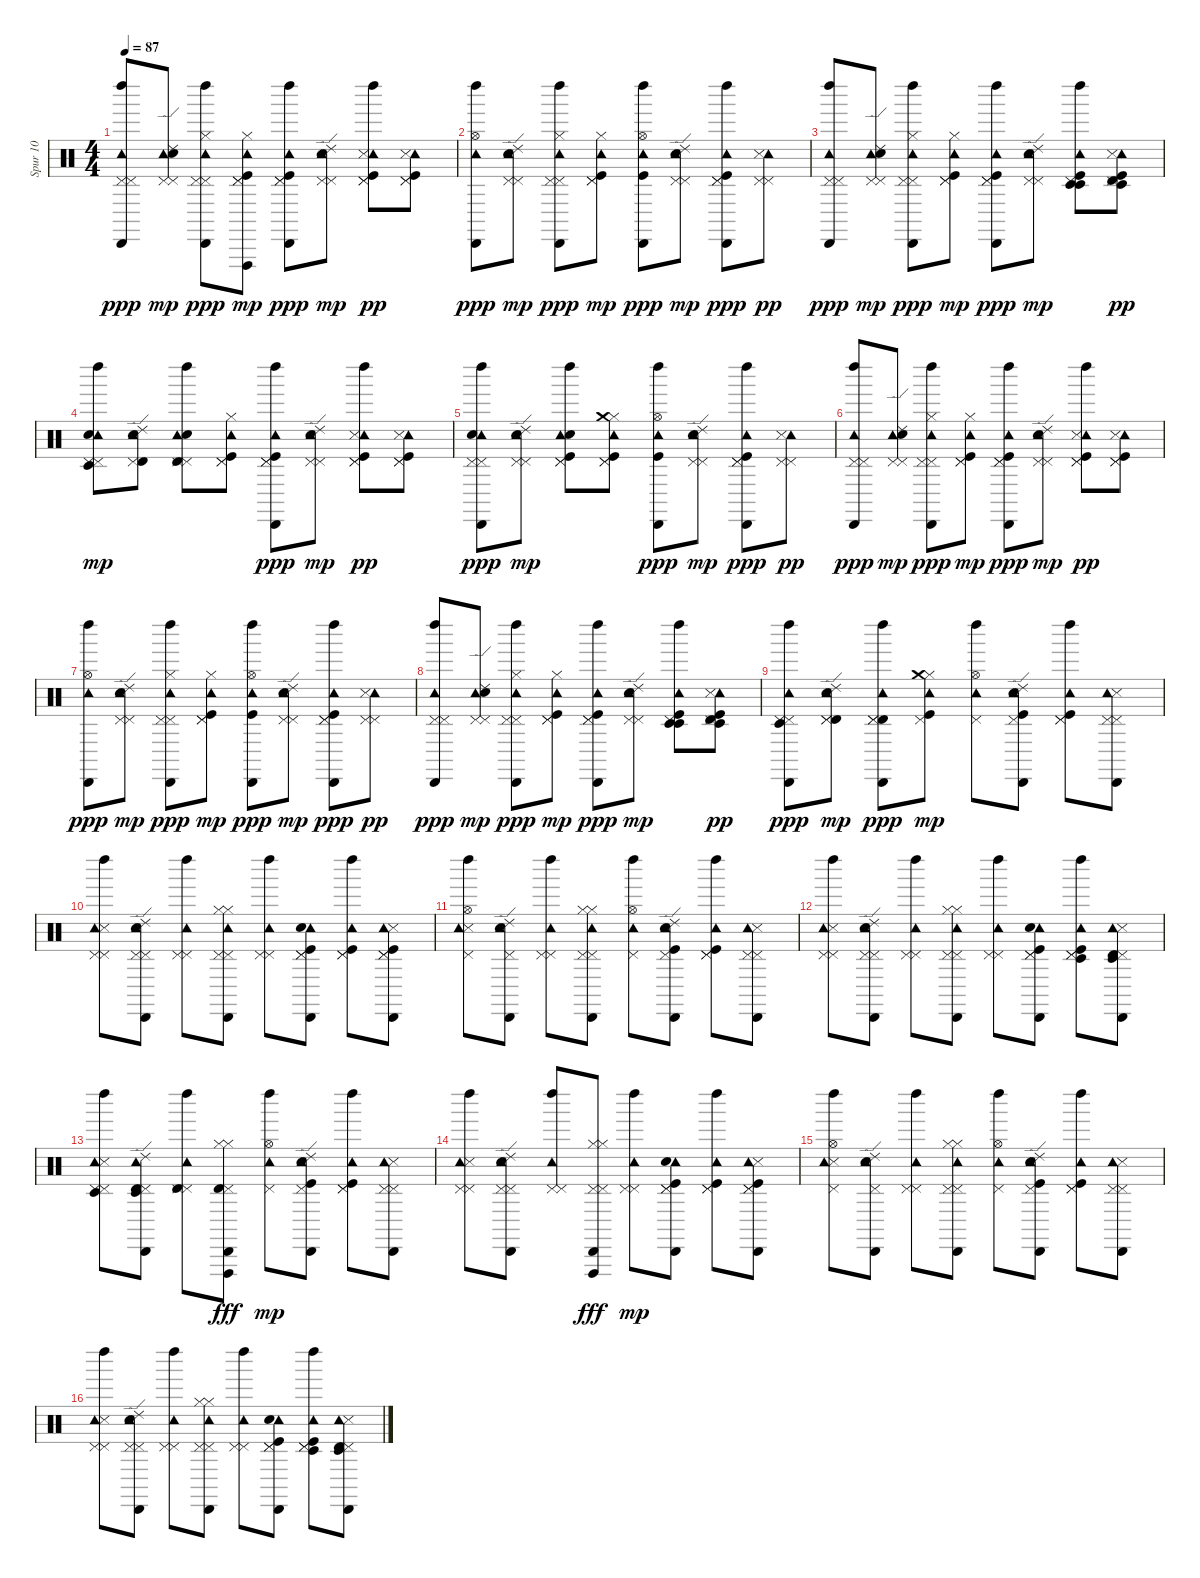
\track ("Spur 10" "Spur 10") {instrument percussion}
\staff {score}
\articulation defaults
\ts (4 4)
\tempo 87
\clef neutral
\ks c
("Left Maraca (hit)" "Pedal Hi-Hat (hit)" "Tambourine (hit)" "Cabasa (hit)" "Pedal Hi-Hat (hit)").8{dy ppp} ("Ride (edge) 2" "Pedal Hi-Hat (hit)" "Tambourine (hit)" "Electric Snare (hit)" "Pedal Hi-Hat (hit)").8{dy mp} ("Left Maraca (hit)" "Pedal Hi-Hat (hit)" "Tambourine (hit)" "Cabasa (hit)" "Pedal Hi-Hat (hit)" "Hi-Hat (closed)").8{dy ppp} ("Hi-Hat (closed)" "Vibraslap (hit)" "Pedal Hi-Hat (hit)" "Tambourine (hit)" "Kick (hit)" "Pedal Hi-Hat (hit)").8{dy mp} ("Left Maraca (hit)" "Pedal Hi-Hat (hit)" "Tambourine (hit)" "Kick (hit)" "Cabasa (hit)" "Pedal Hi-Hat (hit)").8{dy ppp} ("Pedal Hi-Hat (hit)" "Tambourine (hit)" "Electric Snare (hit)" "Ride (edge) 2" "Pedal Hi-Hat (hit)").8{dy mp} ("Kick (hit)" "Tambourine (hit)" "Left Maraca (hit)" "Pedal Hi-Hat (hit)" "Pedal Hi-Hat (hit)" "Snare (side stick) 3").8{dy pp} ("Tambourine (hit)" "Pedal Hi-Hat (hit)" "Kick (hit)" "Snare (side stick) 3" "Pedal Hi-Hat (hit)").8 |
("Left Maraca (hit)" "Tambourine (hit)" "Hi-Hat (open)" "Cabasa (hit)").8{dy ppp} ("Ride (edge) 2" "Tambourine (hit)" "Pedal Hi-Hat (hit)" "Electric Snare (hit)" "Pedal Hi-Hat (hit)").8{dy mp} ("Pedal Hi-Hat (hit)" "Left Maraca (hit)" "Tambourine (hit)" "Pedal Hi-Hat (hit)" "Cabasa (hit)" "Hi-Hat (closed)").8{dy ppp} ("Hi-Hat (closed)" "Pedal Hi-Hat (hit)" "Tambourine (hit)" "Kick (hit)" "Pedal Hi-Hat (hit)").8{dy mp} ("Left Maraca (hit)" "Hi-Hat (open)" "Tambourine (hit)" "Kick (hit)" "Cabasa (hit)").8{dy ppp} ("Ride (edge) 2" "Pedal Hi-Hat (hit)" "Tambourine (hit)" "Electric Snare (hit)" "Pedal Hi-Hat (hit)").8{dy mp} ("Pedal Hi-Hat (hit)" "Kick (hit)" "Tambourine (hit)" "Left Maraca (hit)" "Cabasa (hit)" "Pedal Hi-Hat (hit)").8{dy ppp} ("Pedal Hi-Hat (hit)" "Tambourine (hit)" "Snare (side stick) 3" "Pedal Hi-Hat (hit)").8{dy pp} |
("Left Maraca (hit)" "Pedal Hi-Hat (hit)" "Tambourine (hit)" "Cabasa (hit)" "Pedal Hi-Hat (hit)").8{dy ppp} ("Ride (edge) 2" "Pedal Hi-Hat (hit)" "Tambourine (hit)" "Electric Snare (hit)" "Pedal Hi-Hat (hit)").8{dy mp} ("Left Maraca (hit)" "Pedal Hi-Hat (hit)" "Tambourine (hit)" "Cabasa (hit)" "Pedal Hi-Hat (hit)" "Hi-Hat (closed)").8{dy ppp} ("Hi-Hat (closed)" "Pedal Hi-Hat (hit)" "Tambourine (hit)" "Kick (hit)" "Pedal Hi-Hat (hit)").8{dy mp} ("Left Maraca (hit)" "Pedal Hi-Hat (hit)" "Tambourine (hit)" "Kick (hit)" "Cabasa (hit)" "Pedal Hi-Hat (hit)").8{dy ppp} ("Pedal Hi-Hat (hit)" "Tambourine (hit)" "Electric Snare (hit)" "Ride (edge) 2" "Pedal Hi-Hat (hit)").8{dy mp} ("Timbale low (hit)" "Kick (hit)" "Tambourine (hit)" "Left Maraca (hit)" "Pedal Hi-Hat (hit)" "Timbale low (hit)").8 ("Timbale high (hit)" "Tambourine (hit)" "Pedal Hi-Hat (hit)" "Kick (hit)" "Timbale low (hit)" "Snare (side stick) 3").8{dy pp} |
("Pedal Hi-Hat (hit)" "Left Maraca (hit)" "Tambourine (hit)" "Electric Snare (hit)" "Timbale low (hit)" "Pedal Hi-Hat (hit)").8{dy mp} ("Timbale high (hit)" "Ride (edge) 2" "Tambourine (hit)" "Pedal Hi-Hat (hit)" "Electric Snare (hit)").8 ("Pedal Hi-Hat (hit)" "Electric Snare (hit)" "Timbale high (hit)" "Pedal Hi-Hat (hit)" "Left Maraca (hit)" "Tambourine (hit)").8 ("Hi-Hat (closed)" "Pedal Hi-Hat (hit)" "Tambourine (hit)" "Kick (hit)" "Pedal Hi-Hat (hit)").8 ("Left Maraca (hit)" "Pedal Hi-Hat (hit)" "Tambourine (hit)" "Kick (hit)" "Cabasa (hit)" "Pedal Hi-Hat (hit)").8{dy ppp} ("Pedal Hi-Hat (hit)" "Tambourine (hit)" "Electric Snare (hit)" "Ride (edge) 2" "Pedal Hi-Hat (hit)").8{dy mp} ("Kick (hit)" "Tambourine (hit)" "Left Maraca (hit)" "Pedal Hi-Hat (hit)" "Pedal Hi-Hat (hit)" "Snare (side stick) 3").8{dy pp} ("Tambourine (hit)" "Pedal Hi-Hat (hit)" "Kick (hit)" "Snare (side stick) 3" "Pedal Hi-Hat (hit)").8 |
("Pedal Hi-Hat (hit)" "Left Maraca (hit)" "Tambourine (hit)" "Electric Snare (hit)" "Pedal Hi-Hat (hit)" "Cabasa (hit)").8{dy ppp} ("Ride (edge) 2" "Tambourine (hit)" "Pedal Hi-Hat (hit)" "Electric Snare (hit)" "Pedal Hi-Hat (hit)").8{dy mp} ("Kick (hit)" "Electric Snare (hit)" "Pedal Hi-Hat (hit)" "Left Maraca (hit)" "Tambourine (hit)" "Pedal Hi-Hat (hit)").8 ("Hi-Hat (closed)" "Pedal Hi-Hat (hit)" "Tambourine (hit)" "Kick (hit)" "Crash medium (hit)" "Pedal Hi-Hat (hit)").8 ("Left Maraca (hit)" "Hi-Hat (open)" "Tambourine (hit)" "Kick (hit)" "Cabasa (hit)").8{dy ppp} ("Ride (edge) 2" "Pedal Hi-Hat (hit)" "Tambourine (hit)" "Electric Snare (hit)" "Pedal Hi-Hat (hit)").8{dy mp} ("Pedal Hi-Hat (hit)" "Kick (hit)" "Tambourine (hit)" "Left Maraca (hit)" "Cabasa (hit)" "Pedal Hi-Hat (hit)").8{dy ppp} ("Pedal Hi-Hat (hit)" "Tambourine (hit)" "Snare (side stick) 3" "Pedal Hi-Hat (hit)").8{dy pp} |
("Left Maraca (hit)" "Pedal Hi-Hat (hit)" "Tambourine (hit)" "Cabasa (hit)" "Pedal Hi-Hat (hit)").8{dy ppp} ("Ride (edge) 2" "Pedal Hi-Hat (hit)" "Tambourine (hit)" "Electric Snare (hit)" "Pedal Hi-Hat (hit)").8{dy mp} ("Left Maraca (hit)" "Pedal Hi-Hat (hit)" "Tambourine (hit)" "Cabasa (hit)" "Pedal Hi-Hat (hit)" "Hi-Hat (closed)").8{dy ppp} ("Hi-Hat (closed)" "Pedal Hi-Hat (hit)" "Tambourine (hit)" "Kick (hit)" "Pedal Hi-Hat (hit)").8{dy mp} ("Left Maraca (hit)" "Pedal Hi-Hat (hit)" "Tambourine (hit)" "Kick (hit)" "Cabasa (hit)" "Pedal Hi-Hat (hit)").8{dy ppp} ("Pedal Hi-Hat (hit)" "Tambourine (hit)" "Electric Snare (hit)" "Ride (edge) 2" "Pedal Hi-Hat (hit)").8{dy mp} ("Kick (hit)" "Tambourine (hit)" "Left Maraca (hit)" "Pedal Hi-Hat (hit)" "Pedal Hi-Hat (hit)" "Snare (side stick) 3").8{dy pp} ("Tambourine (hit)" "Pedal Hi-Hat (hit)" "Kick (hit)" "Snare (side stick) 3" "Pedal Hi-Hat (hit)").8 |
("Left Maraca (hit)" "Tambourine (hit)" "Hi-Hat (open)" "Cabasa (hit)").8{dy ppp} ("Ride (edge) 2" "Tambourine (hit)" "Pedal Hi-Hat (hit)" "Electric Snare (hit)" "Pedal Hi-Hat (hit)").8{dy mp} ("Pedal Hi-Hat (hit)" "Left Maraca (hit)" "Tambourine (hit)" "Pedal Hi-Hat (hit)" "Cabasa (hit)" "Hi-Hat (closed)").8{dy ppp} ("Hi-Hat (closed)" "Pedal Hi-Hat (hit)" "Tambourine (hit)" "Kick (hit)" "Pedal Hi-Hat (hit)").8{dy mp} ("Left Maraca (hit)" "Hi-Hat (open)" "Tambourine (hit)" "Kick (hit)" "Cabasa (hit)").8{dy ppp} ("Ride (edge) 2" "Pedal Hi-Hat (hit)" "Tambourine (hit)" "Electric Snare (hit)" "Pedal Hi-Hat (hit)").8{dy mp} ("Pedal Hi-Hat (hit)" "Kick (hit)" "Tambourine (hit)" "Left Maraca (hit)" "Cabasa (hit)" "Pedal Hi-Hat (hit)").8{dy ppp} ("Pedal Hi-Hat (hit)" "Tambourine (hit)" "Snare (side stick) 3" "Pedal Hi-Hat (hit)").8{dy pp} |
("Left Maraca (hit)" "Pedal Hi-Hat (hit)" "Tambourine (hit)" "Cabasa (hit)" "Pedal Hi-Hat (hit)").8{dy ppp} ("Ride (edge) 2" "Pedal Hi-Hat (hit)" "Tambourine (hit)" "Electric Snare (hit)" "Pedal Hi-Hat (hit)").8{dy mp} ("Left Maraca (hit)" "Pedal Hi-Hat (hit)" "Tambourine (hit)" "Cabasa (hit)" "Pedal Hi-Hat (hit)" "Hi-Hat (closed)").8{dy ppp} ("Hi-Hat (closed)" "Pedal Hi-Hat (hit)" "Tambourine (hit)" "Kick (hit)" "Pedal Hi-Hat (hit)").8{dy mp} ("Left Maraca (hit)" "Pedal Hi-Hat (hit)" "Tambourine (hit)" "Kick (hit)" "Cabasa (hit)" "Pedal Hi-Hat (hit)").8{dy ppp} ("Pedal Hi-Hat (hit)" "Tambourine (hit)" "Electric Snare (hit)" "Ride (edge) 2" "Pedal Hi-Hat (hit)").8{dy mp} ("Timbale low (hit)" "Kick (hit)" "Tambourine (hit)" "Left Maraca (hit)" "Pedal Hi-Hat (hit)" "Timbale low (hit)").8 ("Timbale high (hit)" "Tambourine (hit)" "Pedal Hi-Hat (hit)" "Kick (hit)" "Timbale low (hit)" "Snare (side stick) 3").8{dy pp} |
("Pedal Hi-Hat (hit)" "Left Maraca (hit)" "Tambourine (hit)" "Timbale low (hit)" "Pedal Hi-Hat (hit)" "Cabasa (hit)").8{dy ppp} ("Timbale high (hit)" "Ride (edge) 2" "Tambourine (hit)" "Pedal Hi-Hat (hit)" "Electric Snare (hit)" "Pedal Hi-Hat (hit)").8{dy mp} ("Timbale high (hit)" "Pedal Hi-Hat (hit)" "Left Maraca (hit)" "Tambourine (hit)" "Pedal Hi-Hat (hit)" "Cabasa (hit)").8{dy ppp} ("Hi-Hat (closed)" "Pedal Hi-Hat (hit)" "Tambourine (hit)" "Kick (hit)" "Crash medium (hit)").8{dy mp} ("Pedal Hi-Hat (hit)" "Left Maraca (hit)" "Hi-Hat (open)" "Tambourine (hit)").8 ("Kick (hit)" "Cabasa (hit)" "Ride (edge) 2" "Pedal Hi-Hat (hit)" "Tambourine (hit)" "Electric Snare (hit)").8 ("Pedal Hi-Hat (hit)" "Pedal Hi-Hat (hit)" "Kick (hit)" "Tambourine (hit)" "Left Maraca (hit)").8 ("Cabasa (hit)" "Pedal Hi-Hat (hit)" "Snare (side stick) 3" "Pedal Hi-Hat (hit)" "Tambourine (hit)").8 |
("Snare (side stick) 3" "Pedal Hi-Hat (hit)" "Left Maraca (hit)" "Pedal Hi-Hat (hit)" "Tambourine (hit)").8 ("Cabasa (hit)" "Pedal Hi-Hat (hit)" "Ride (edge) 2" "Pedal Hi-Hat (hit)" "Tambourine (hit)" "Electric Snare (hit)").8 ("Pedal Hi-Hat (hit)" "Left Maraca (hit)" "Pedal Hi-Hat (hit)" "Tambourine (hit)").8 ("Cabasa (hit)" "Pedal Hi-Hat (hit)" "Hi-Hat (closed)" "Hi-Hat (closed)" "Pedal Hi-Hat (hit)" "Tambourine (hit)").8 ("Pedal Hi-Hat (hit)" "Left Maraca (hit)" "Pedal Hi-Hat (hit)" "Tambourine (hit)").8 ("Kick (hit)" "Cabasa (hit)" "Pedal Hi-Hat (hit)" "Pedal Hi-Hat (hit)" "Tambourine (hit)" "Electric Snare (hit)").8 ("Pedal Hi-Hat (hit)" "Kick (hit)" "Tambourine (hit)" "Left Maraca (hit)" "Pedal Hi-Hat (hit)").8 ("Pedal Hi-Hat (hit)" "Snare (side stick) 3" "Cabasa (hit)" "Tambourine (hit)" "Pedal Hi-Hat (hit)" "Kick (hit)").8 |
("Snare (side stick) 3" "Pedal Hi-Hat (hit)" "Left Maraca (hit)" "Tambourine (hit)" "Hi-Hat (open)").8 ("Cabasa (hit)" "Ride (edge) 2" "Tambourine (hit)" "Pedal Hi-Hat (hit)" "Electric Snare (hit)").8 ("Pedal Hi-Hat (hit)" "Pedal Hi-Hat (hit)" "Left Maraca (hit)" "Tambourine (hit)").8 ("Pedal Hi-Hat (hit)" "Cabasa (hit)" "Hi-Hat (closed)" "Hi-Hat (closed)" "Pedal Hi-Hat (hit)" "Tambourine (hit)").8 ("Pedal Hi-Hat (hit)" "Left Maraca (hit)" "Hi-Hat (open)" "Tambourine (hit)").8 ("Kick (hit)" "Cabasa (hit)" "Ride (edge) 2" "Pedal Hi-Hat (hit)" "Tambourine (hit)" "Electric Snare (hit)").8 ("Pedal Hi-Hat (hit)" "Pedal Hi-Hat (hit)" "Kick (hit)" "Tambourine (hit)" "Left Maraca (hit)").8 ("Cabasa (hit)" "Pedal Hi-Hat (hit)" "Snare (side stick) 3" "Pedal Hi-Hat (hit)" "Tambourine (hit)").8 |
("Snare (side stick) 3" "Pedal Hi-Hat (hit)" "Left Maraca (hit)" "Pedal Hi-Hat (hit)" "Tambourine (hit)").8 ("Cabasa (hit)" "Pedal Hi-Hat (hit)" "Ride (edge) 2" "Pedal Hi-Hat (hit)" "Tambourine (hit)" "Electric Snare (hit)").8 ("Pedal Hi-Hat (hit)" "Left Maraca (hit)" "Pedal Hi-Hat (hit)" "Tambourine (hit)").8 ("Cabasa (hit)" "Pedal Hi-Hat (hit)" "Hi-Hat (closed)" "Hi-Hat (closed)" "Pedal Hi-Hat (hit)" "Tambourine (hit)").8 ("Pedal Hi-Hat (hit)" "Left Maraca (hit)" "Pedal Hi-Hat (hit)" "Tambourine (hit)").8 ("Kick (hit)" "Cabasa (hit)" "Pedal Hi-Hat (hit)" "Pedal Hi-Hat (hit)" "Tambourine (hit)" "Electric Snare (hit)").8 ("Pedal Hi-Hat (hit)" "Timbale low (hit)" "Kick (hit)" "Tambourine (hit)" "Left Maraca (hit)" "Pedal Hi-Hat (hit)").8 ("Timbale low (hit)" "Pedal Hi-Hat (hit)" "Snare (side stick) 3" "Cabasa (hit)" "Timbale high (hit)" "Tambourine (hit)").8 |
("Timbale low (hit)" "Snare (side stick) 3" "Pedal Hi-Hat (hit)" "Pedal Hi-Hat (hit)" "Left Maraca (hit)" "Tambourine (hit)").8 ("Timbale low (hit)" "Pedal Hi-Hat (hit)" "Cabasa (hit)" "Timbale high (hit)" "Ride (edge) 2" "Tambourine (hit)").8 ("Pedal Hi-Hat (hit)" "Timbale high (hit)" "Pedal Hi-Hat (hit)" "Left Maraca (hit)" "Tambourine (hit)").8 ("Pedal Hi-Hat (hit)" "Cabasa (hit)" "Timbale high (hit)" "Hi-Hat (closed)" "Hi-Hat (closed)" "Vibraslap (hit)").8{dy fff} ("Pedal Hi-Hat (hit)" "Left Maraca (hit)" "Hi-Hat (open)" "Tambourine (hit)").8{dy mp} ("Kick (hit)" "Cabasa (hit)" "Ride (edge) 2" "Pedal Hi-Hat (hit)" "Tambourine (hit)" "Electric Snare (hit)").8 ("Pedal Hi-Hat (hit)" "Pedal Hi-Hat (hit)" "Kick (hit)" "Tambourine (hit)" "Left Maraca (hit)").8 ("Cabasa (hit)" "Pedal Hi-Hat (hit)" "Snare (side stick) 3" "Pedal Hi-Hat (hit)" "Tambourine (hit)").8 |
("Snare (side stick) 3" "Pedal Hi-Hat (hit)" "Left Maraca (hit)" "Pedal Hi-Hat (hit)" "Tambourine (hit)").8 ("Cabasa (hit)" "Pedal Hi-Hat (hit)" "Ride (edge) 2" "Pedal Hi-Hat (hit)" "Tambourine (hit)" "Electric Snare (hit)").8 ("Pedal Hi-Hat (hit)" "Left Maraca (hit)" "Pedal Hi-Hat (hit)" "Tambourine (hit)").8 ("Cabasa (hit)" "Pedal Hi-Hat (hit)" "Hi-Hat (closed)" "Hi-Hat (closed)" "Vibraslap (hit)" "Pedal Hi-Hat (hit)").8{dy fff} ("Pedal Hi-Hat (hit)" "Left Maraca (hit)" "Pedal Hi-Hat (hit)" "Tambourine (hit)").8{dy mp} ("Kick (hit)" "Cabasa (hit)" "Pedal Hi-Hat (hit)" "Pedal Hi-Hat (hit)" "Tambourine (hit)" "Electric Snare (hit)").8 ("Pedal Hi-Hat (hit)" "Kick (hit)" "Tambourine (hit)" "Left Maraca (hit)" "Pedal Hi-Hat (hit)").8 ("Pedal Hi-Hat (hit)" "Snare (side stick) 3" "Cabasa (hit)" "Tambourine (hit)" "Pedal Hi-Hat (hit)" "Kick (hit)").8 |
("Snare (side stick) 3" "Pedal Hi-Hat (hit)" "Left Maraca (hit)" "Tambourine (hit)" "Hi-Hat (open)").8 ("Cabasa (hit)" "Ride (edge) 2" "Tambourine (hit)" "Pedal Hi-Hat (hit)" "Electric Snare (hit)").8 ("Pedal Hi-Hat (hit)" "Pedal Hi-Hat (hit)" "Left Maraca (hit)" "Tambourine (hit)").8 ("Pedal Hi-Hat (hit)" "Cabasa (hit)" "Hi-Hat (closed)" "Hi-Hat (closed)" "Pedal Hi-Hat (hit)" "Tambourine (hit)").8 ("Pedal Hi-Hat (hit)" "Left Maraca (hit)" "Hi-Hat (open)" "Tambourine (hit)").8 ("Kick (hit)" "Cabasa (hit)" "Ride (edge) 2" "Pedal Hi-Hat (hit)" "Tambourine (hit)" "Electric Snare (hit)").8 ("Pedal Hi-Hat (hit)" "Pedal Hi-Hat (hit)" "Kick (hit)" "Tambourine (hit)" "Left Maraca (hit)").8 ("Cabasa (hit)" "Pedal Hi-Hat (hit)" "Snare (side stick) 3" "Pedal Hi-Hat (hit)" "Tambourine (hit)").8 |
("Snare (side stick) 3" "Pedal Hi-Hat (hit)" "Left Maraca (hit)" "Pedal Hi-Hat (hit)" "Tambourine (hit)").8 ("Cabasa (hit)" "Pedal Hi-Hat (hit)" "Ride (edge) 2" "Pedal Hi-Hat (hit)" "Tambourine (hit)" "Electric Snare (hit)").8 ("Pedal Hi-Hat (hit)" "Left Maraca (hit)" "Pedal Hi-Hat (hit)" "Tambourine (hit)").8 ("Cabasa (hit)" "Pedal Hi-Hat (hit)" "Hi-Hat (closed)" "Hi-Hat (closed)" "Pedal Hi-Hat (hit)" "Tambourine (hit)").8 ("Pedal Hi-Hat (hit)" "Left Maraca (hit)" "Pedal Hi-Hat (hit)" "Tambourine (hit)").8 ("Kick (hit)" "Cabasa (hit)" "Pedal Hi-Hat (hit)" "Pedal Hi-Hat (hit)" "Tambourine (hit)" "Electric Snare (hit)").8 ("Pedal Hi-Hat (hit)" "Timbale low (hit)" "Kick (hit)" "Tambourine (hit)" "Left Maraca (hit)" "Pedal Hi-Hat (hit)").8 ("Timbale low (hit)" "Pedal Hi-Hat (hit)" "Snare (side stick) 3" "Cabasa (hit)" "Timbale high (hit)" "Tambourine (hit)").8
